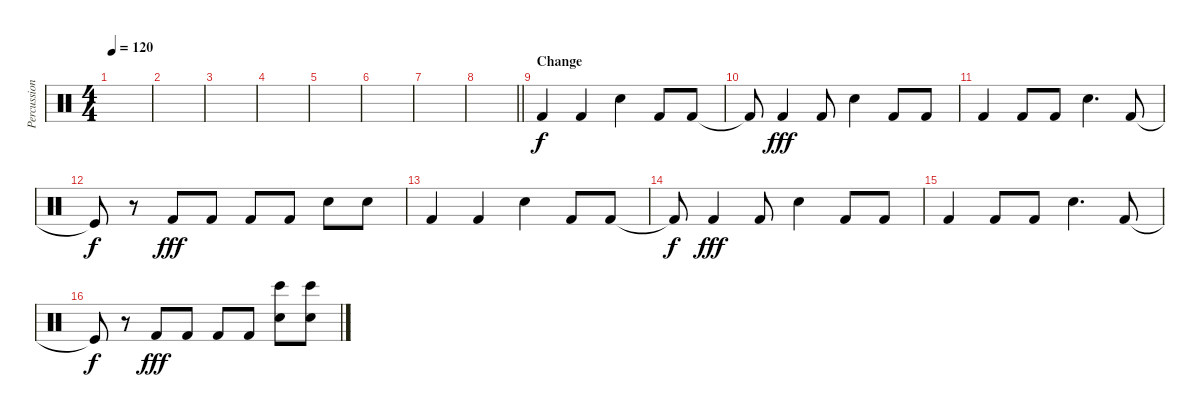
\track ("Percussion 1" "Percussion") {instrument percussion}
\staff {score}
\articulation defaults
\ts (4 4)
\tempo 120
\clef neutral
\ks c
|
|
|
|
|
|
|
\barLineRight lightlight
|
\section ("" "Change")
"Kick (hit) 2".4 "Kick (hit) 2".4 "Electric Snare (hit)".4 "Kick (hit) 2".8 "Kick (hit) 2".8 |
"Kick (hit) 2"{t}.8{dy f} "Kick (hit) 2".4{dy fff} "Kick (hit) 2".8 "Electric Snare (hit)".4 "Kick (hit) 2".8 "Kick (hit) 2".8 |
"Kick (hit) 2".4 "Kick (hit) 2".8 "Kick (hit) 2".8 "Electric Snare (hit)".4{d} "Kick (hit) 2".8 |
"Kick (hit)"{t}.8{dy f} r.8 "Kick (hit) 2".8{dy fff} "Kick (hit) 2".8 "Kick (hit) 2".8 "Kick (hit) 2".8 "Electric Snare (hit)".8 "Electric Snare (hit)".8 |
"Kick (hit) 2".4 "Kick (hit) 2".4 "Electric Snare (hit)".4 "Kick (hit) 2".8 "Kick (hit) 2".8 |
"Kick (hit) 2"{t}.8{dy f} "Kick (hit) 2".4{dy fff} "Kick (hit) 2".8 "Electric Snare (hit)".4 "Kick (hit) 2".8 "Kick (hit) 2".8 |
"Kick (hit) 2".4 "Kick (hit) 2".8 "Kick (hit) 2".8 "Electric Snare (hit)".4{d} "Kick (hit) 2".8 |
"Kick (hit)"{t}.8{dy f} r.8 "Kick (hit) 2".8{dy fff} "Kick (hit) 2".8 "Kick (hit) 2".8 "Kick (hit) 2".8 ("Electric Snare (hit)" "Bongo High (hit)").8 ("Electric Snare (hit)" "Bongo High (hit)").8
